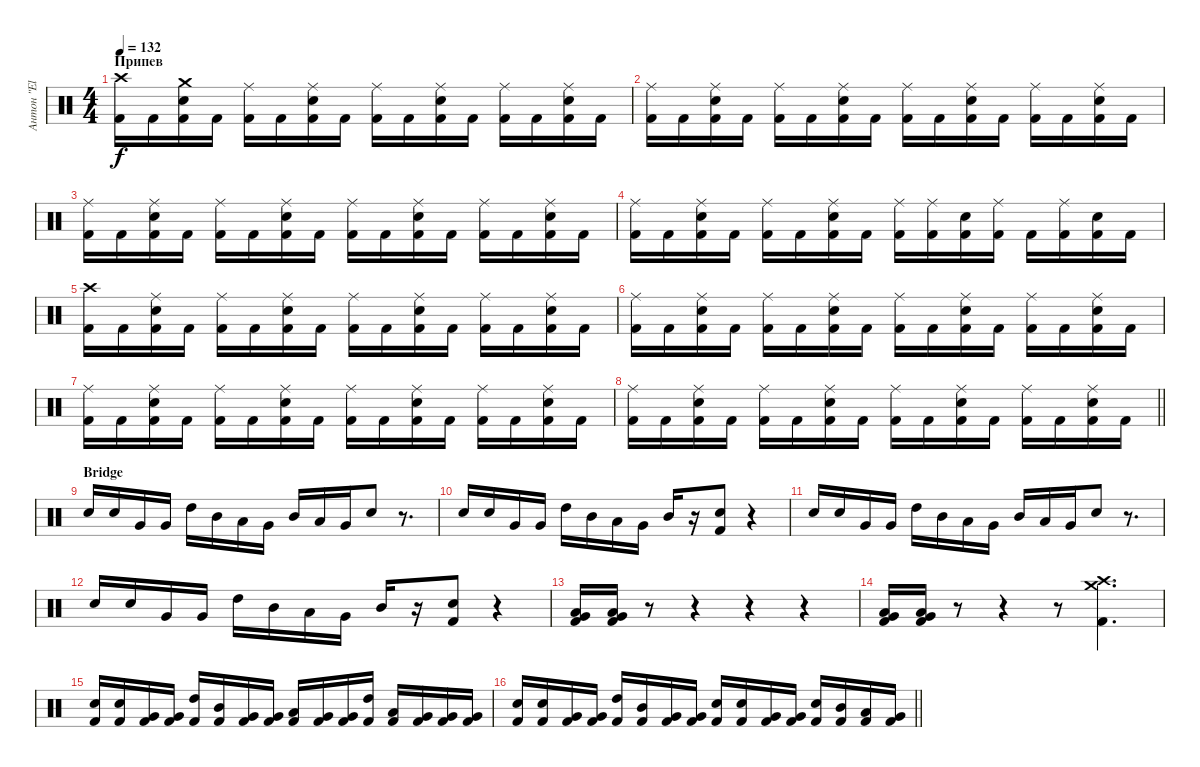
\track ("Антон \"El Bastardo\" Смольянин" "Антон \"El ") {instrument percussion}
\staff {score}
\articulation defaults
\ts (4 4)
\section ("" "Припев")
\tempo 132
\clef neutral
\ks c
("Crash high (hit)" "Kick (hit) 2").16{dy f} "Kick (hit) 2".16 ("Crash medium (hit)" "Electric Snare (hit)" "Kick (hit) 2").16 "Kick (hit) 2".16 ("Ride (middle)" "Kick (hit) 2").16 "Kick (hit) 2".16 ("Ride (middle)" "Electric Snare (hit)" "Kick (hit) 2").16 "Kick (hit) 2".16 ("Ride (middle)" "Kick (hit) 2").16 "Kick (hit) 2".16 ("Ride (middle)" "Electric Snare (hit)" "Kick (hit) 2").16 "Kick (hit) 2".16 ("Ride (middle)" "Kick (hit) 2").16 "Kick (hit) 2".16 ("Ride (middle)" "Electric Snare (hit)" "Kick (hit) 2").16 "Kick (hit) 2".16 |
("Ride (middle)" "Kick (hit) 2").16 "Kick (hit) 2".16 ("Ride (middle)" "Electric Snare (hit)" "Kick (hit) 2").16 "Kick (hit) 2".16 ("Ride (middle)" "Kick (hit) 2").16 "Kick (hit) 2".16 ("Ride (middle)" "Electric Snare (hit)" "Kick (hit) 2").16 "Kick (hit) 2".16 ("Ride (middle)" "Kick (hit) 2").16 "Kick (hit) 2".16 ("Ride (middle)" "Electric Snare (hit)" "Kick (hit) 2").16 "Kick (hit) 2".16 ("Ride (middle)" "Kick (hit) 2").16 "Kick (hit) 2".16 ("Ride (middle)" "Electric Snare (hit)" "Kick (hit) 2").16 "Kick (hit) 2".16 |
("Ride (middle)" "Kick (hit) 2").16 "Kick (hit) 2".16 ("Ride (middle)" "Electric Snare (hit)" "Kick (hit) 2").16 "Kick (hit) 2".16 ("Ride (middle)" "Kick (hit) 2").16 "Kick (hit) 2".16 ("Ride (middle)" "Electric Snare (hit)" "Kick (hit) 2").16 "Kick (hit) 2".16 ("Ride (middle)" "Kick (hit) 2").16 "Kick (hit) 2".16 ("Ride (middle)" "Electric Snare (hit)" "Kick (hit) 2").16 "Kick (hit) 2".16 ("Ride (middle)" "Kick (hit) 2").16 "Kick (hit) 2".16 ("Ride (middle)" "Electric Snare (hit)" "Kick (hit) 2").16 "Kick (hit) 2".16 |
("Ride (middle)" "Kick (hit) 2").16 "Kick (hit) 2".16 ("Ride (middle)" "Electric Snare (hit)" "Kick (hit) 2").16 "Kick (hit) 2".16 ("Ride (middle)" "Kick (hit) 2").16 "Kick (hit) 2".16 ("Ride (middle)" "Electric Snare (hit)" "Kick (hit) 2").16 "Kick (hit) 2".16 ("Ride (middle)" "Kick (hit) 2").16 ("Ride (middle)" "Kick (hit) 2").16 ("Electric Snare (hit)" "Kick (hit) 2").16 ("Ride (middle)" "Kick (hit) 2").16 "Kick (hit) 2".16 ("Ride (middle)" "Kick (hit) 2").16 ("Electric Snare (hit)" "Kick (hit) 2").16 "Kick (hit) 2".16 |
("Crash high (hit)" "Kick (hit) 2").16 "Kick (hit) 2".16 ("Ride (middle)" "Electric Snare (hit)" "Kick (hit) 2").16 "Kick (hit) 2".16 ("Ride (middle)" "Kick (hit) 2").16 "Kick (hit) 2".16 ("Ride (middle)" "Electric Snare (hit)" "Kick (hit) 2").16 "Kick (hit) 2".16 ("Ride (middle)" "Kick (hit) 2").16 "Kick (hit) 2".16 ("Ride (middle)" "Electric Snare (hit)" "Kick (hit) 2").16 "Kick (hit) 2".16 ("Ride (middle)" "Kick (hit) 2").16 "Kick (hit) 2".16 ("Ride (middle)" "Electric Snare (hit)" "Kick (hit) 2").16 "Kick (hit) 2".16 |
("Ride (middle)" "Kick (hit) 2").16 "Kick (hit) 2".16 ("Ride (middle)" "Electric Snare (hit)" "Kick (hit) 2").16 "Kick (hit) 2".16 ("Ride (middle)" "Kick (hit) 2").16 "Kick (hit) 2".16 ("Ride (middle)" "Electric Snare (hit)" "Kick (hit) 2").16 "Kick (hit) 2".16 ("Ride (middle)" "Kick (hit) 2").16 "Kick (hit) 2".16 ("Ride (middle)" "Electric Snare (hit)" "Kick (hit) 2").16 "Kick (hit) 2".16 ("Ride (middle)" "Kick (hit) 2").16 "Kick (hit) 2".16 ("Ride (middle)" "Electric Snare (hit)" "Kick (hit) 2").16 "Kick (hit) 2".16 |
("Ride (middle)" "Kick (hit) 2").16 "Kick (hit) 2".16 ("Ride (middle)" "Electric Snare (hit)" "Kick (hit) 2").16 "Kick (hit) 2".16 ("Ride (middle)" "Kick (hit) 2").16 "Kick (hit) 2".16 ("Ride (middle)" "Electric Snare (hit)" "Kick (hit) 2").16 "Kick (hit) 2".16 ("Ride (middle)" "Kick (hit) 2").16 "Kick (hit) 2".16 ("Ride (middle)" "Electric Snare (hit)" "Kick (hit) 2").16 "Kick (hit) 2".16 ("Ride (middle)" "Kick (hit) 2").16 "Kick (hit) 2".16 ("Ride (middle)" "Electric Snare (hit)" "Kick (hit) 2").16 "Kick (hit) 2".16 |
\barLineRight lightlight
("Ride (middle)" "Kick (hit) 2").16 "Kick (hit) 2".16 ("Ride (middle)" "Electric Snare (hit)" "Kick (hit) 2").16 "Kick (hit) 2".16 ("Ride (middle)" "Kick (hit) 2").16 "Kick (hit) 2".16 ("Ride (middle)" "Electric Snare (hit)" "Kick (hit) 2").16 "Kick (hit) 2".16 ("Ride (middle)" "Kick (hit) 2").16 "Kick (hit) 2".16 ("Ride (middle)" "Electric Snare (hit)" "Kick (hit) 2").16 "Kick (hit) 2".16 ("Ride (middle)" "Kick (hit) 2").16 "Kick (hit) 2".16 ("Ride (middle)" "Electric Snare (hit)" "Kick (hit) 2").16 "Kick (hit) 2".16 |
\section ("" "Bridge")
"Electric Snare (hit)".16 "Electric Snare (hit)".16 "Very Low Tom (hit)".16 "Very Low Tom (hit)".16 "High Tom (hit)".16 "Mid Tom (hit)".16 "Low Tom (hit)".16 "Very Low Tom (hit)".16 "Mid Tom (hit)".16 "Low Tom (hit)".16 "Very Low Tom (hit)".16 "Electric Snare (hit)".8 r.8{d} |
"Electric Snare (hit)".16 "Electric Snare (hit)".16 "Very Low Tom (hit)".16 "Very Low Tom (hit)".16 "High Tom (hit)".16 "Mid Tom (hit)".16 "Low Tom (hit)".16 "Very Low Tom (hit)".16 "Mid Tom (hit)".16 r.16 ("Electric Snare (hit)" "Kick (hit) 2").8 r.4 |
"Electric Snare (hit)".16 "Electric Snare (hit)".16 "Very Low Tom (hit)".16 "Very Low Tom (hit)".16 "High Tom (hit)".16 "Mid Tom (hit)".16 "Low Tom (hit)".16 "Very Low Tom (hit)".16 "Mid Tom (hit)".16 "Low Tom (hit)".16 "Very Low Tom (hit)".16 "Electric Snare (hit)".8 r.8{d} |
"Electric Snare (hit)".16 "Electric Snare (hit)".16 "Very Low Tom (hit)".16 "Very Low Tom (hit)".16 "High Tom (hit)".16 "Mid Tom (hit)".16 "Low Tom (hit)".16 "Very Low Tom (hit)".16 "Mid Tom (hit)".16 r.16 ("Electric Snare (hit)" "Kick (hit) 2").8 r.4 |
("Low Tom (hit)" "Very Low Tom (hit)" "Kick (hit) 2").16 ("Low Tom (hit)" "Very Low Tom (hit)" "Kick (hit) 2").16 r.8 r.4 r.4 r.4 |
("Low Tom (hit)" "Very Low Tom (hit)" "Kick (hit) 2").16 ("Low Tom (hit)" "Very Low Tom (hit)" "Kick (hit) 2").16 r.8 r.4 r.8 ("Crash high (hit)" "Crash medium (hit)" "Kick (hit) 2").4{d} |
("Electric Snare (hit)" "Kick (hit) 2").16 ("Electric Snare (hit)" "Kick (hit) 2").16 ("Very Low Tom (hit)" "Kick (hit) 2").16 ("Very Low Tom (hit)" "Kick (hit) 2").16 ("High Tom (hit)" "Kick (hit) 2").16 ("Mid Tom (hit)" "Kick (hit) 2").16 ("Very Low Tom (hit)" "Kick (hit) 2").16 ("Very Low Tom (hit)" "Kick (hit) 2").16 ("Low Tom (hit)" "Kick (hit) 2").16 ("Very Low Tom (hit)" "Kick (hit) 2").16 ("Very Low Tom (hit)" "Kick (hit) 2").16 ("High Tom (hit)" "Kick (hit) 2").16 ("Low Tom (hit)" "Kick (hit) 2").16 ("Very Low Tom (hit)" "Kick (hit) 2").16 ("Very Low Tom (hit)" "Kick (hit) 2").16 ("Very Low Tom (hit)" "Kick (hit) 2").16 |
\barLineRight lightlight
("Electric Snare (hit)" "Kick (hit) 2").16 ("Electric Snare (hit)" "Kick (hit) 2").16 ("Very Low Tom (hit)" "Kick (hit) 2").16 ("Very Low Tom (hit)" "Kick (hit) 2").16 ("High Tom (hit)" "Kick (hit) 2").16 ("Mid Tom (hit)" "Kick (hit) 2").16 ("Very Low Tom (hit)" "Kick (hit) 2").16 ("Very Low Tom (hit)" "Kick (hit) 2").16 ("Electric Snare (hit)" "Kick (hit) 2").16 ("Electric Snare (hit)" "Kick (hit) 2").16 ("Very Low Tom (hit)" "Kick (hit) 2").16 ("Very Low Tom (hit)" "Kick (hit) 2").16 ("Electric Snare (hit)" "Kick (hit) 2").16 ("Mid Tom (hit)" "Kick (hit) 2").16 ("Low Tom (hit)" "Kick (hit) 2").16 ("Very Low Tom (hit)" "Kick (hit) 2").16
